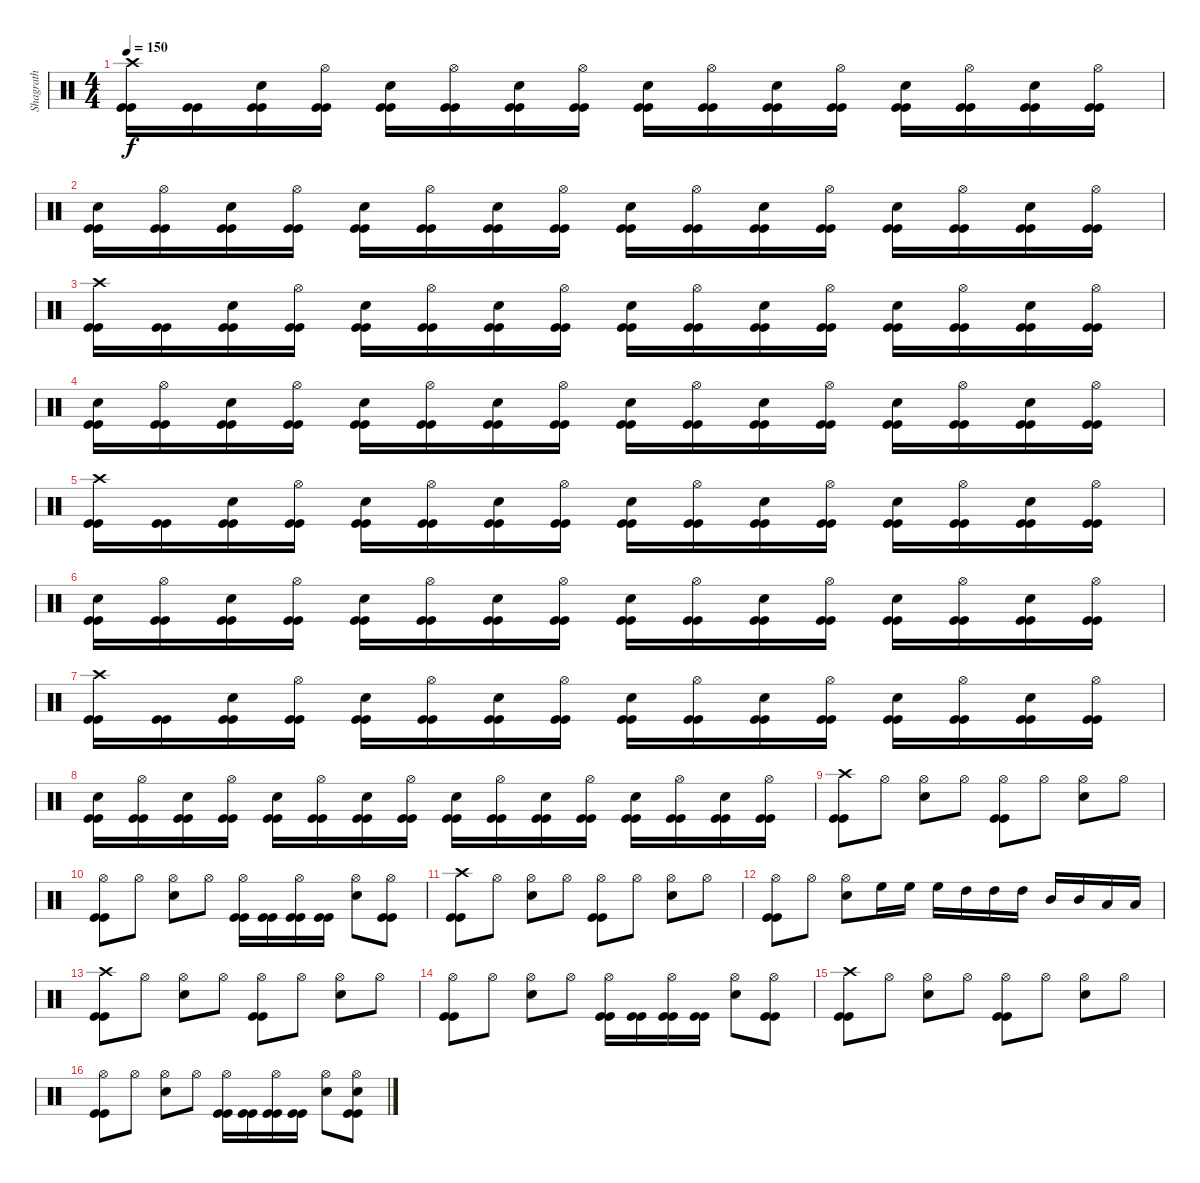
\track ("Shagrath" "Shagrath") {instrument percussion}
\staff {score}
\articulation defaults
\ts (4 4)
\tempo 150
\clef neutral
\ks c
("Kick (hit)" "Kick (hit)" "Crash high (hit)").16{dy f} ("Kick (hit)" "Kick (hit)").16 ("Kick (hit)" "Kick (hit)" "Electric Snare (hit)").16 ("Kick (hit)" "Kick (hit)" "Hi-Hat (open)").16 ("Kick (hit)" "Kick (hit)" "Electric Snare (hit)").16 ("Kick (hit)" "Kick (hit)" "Hi-Hat (open)").16 ("Kick (hit)" "Kick (hit)" "Electric Snare (hit)").16 ("Kick (hit)" "Kick (hit)" "Hi-Hat (open)").16 ("Kick (hit)" "Kick (hit)" "Electric Snare (hit)").16 ("Kick (hit)" "Kick (hit)" "Hi-Hat (open)").16 ("Kick (hit)" "Kick (hit)" "Electric Snare (hit)").16 ("Kick (hit)" "Kick (hit)" "Hi-Hat (open)").16 ("Kick (hit)" "Kick (hit)" "Electric Snare (hit)").16 ("Kick (hit)" "Kick (hit)" "Hi-Hat (open)").16 ("Kick (hit)" "Kick (hit)" "Electric Snare (hit)").16 ("Kick (hit)" "Kick (hit)" "Hi-Hat (open)").16 |
("Kick (hit)" "Kick (hit)" "Electric Snare (hit)").16 ("Kick (hit)" "Kick (hit)" "Hi-Hat (open)").16 ("Kick (hit)" "Kick (hit)" "Electric Snare (hit)").16 ("Kick (hit)" "Kick (hit)" "Hi-Hat (open)").16 ("Kick (hit)" "Kick (hit)" "Electric Snare (hit)").16 ("Kick (hit)" "Kick (hit)" "Hi-Hat (open)").16 ("Kick (hit)" "Kick (hit)" "Electric Snare (hit)").16 ("Kick (hit)" "Kick (hit)" "Hi-Hat (open)").16 ("Kick (hit)" "Kick (hit)" "Electric Snare (hit)").16 ("Kick (hit)" "Kick (hit)" "Hi-Hat (open)").16 ("Kick (hit)" "Kick (hit)" "Electric Snare (hit)").16 ("Kick (hit)" "Kick (hit)" "Hi-Hat (open)").16 ("Kick (hit)" "Kick (hit)" "Electric Snare (hit)").16 ("Kick (hit)" "Kick (hit)" "Hi-Hat (open)").16 ("Kick (hit)" "Kick (hit)" "Electric Snare (hit)").16 ("Kick (hit)" "Kick (hit)" "Hi-Hat (open)").16 |
("Kick (hit)" "Kick (hit)" "Crash high (hit)").16 ("Kick (hit)" "Kick (hit)").16 ("Kick (hit)" "Kick (hit)" "Electric Snare (hit)").16 ("Kick (hit)" "Kick (hit)" "Hi-Hat (open)").16 ("Kick (hit)" "Kick (hit)" "Electric Snare (hit)").16 ("Kick (hit)" "Kick (hit)" "Hi-Hat (open)").16 ("Kick (hit)" "Kick (hit)" "Electric Snare (hit)").16 ("Kick (hit)" "Kick (hit)" "Hi-Hat (open)").16 ("Kick (hit)" "Kick (hit)" "Electric Snare (hit)").16 ("Kick (hit)" "Kick (hit)" "Hi-Hat (open)").16 ("Kick (hit)" "Kick (hit)" "Electric Snare (hit)").16 ("Kick (hit)" "Kick (hit)" "Hi-Hat (open)").16 ("Kick (hit)" "Kick (hit)" "Electric Snare (hit)").16 ("Kick (hit)" "Kick (hit)" "Hi-Hat (open)").16 ("Kick (hit)" "Kick (hit)" "Electric Snare (hit)").16 ("Kick (hit)" "Kick (hit)" "Hi-Hat (open)").16 |
("Kick (hit)" "Kick (hit)" "Electric Snare (hit)").16 ("Kick (hit)" "Kick (hit)" "Hi-Hat (open)").16 ("Kick (hit)" "Kick (hit)" "Electric Snare (hit)").16 ("Kick (hit)" "Kick (hit)" "Hi-Hat (open)").16 ("Kick (hit)" "Kick (hit)" "Electric Snare (hit)").16 ("Kick (hit)" "Kick (hit)" "Hi-Hat (open)").16 ("Kick (hit)" "Kick (hit)" "Electric Snare (hit)").16 ("Kick (hit)" "Kick (hit)" "Hi-Hat (open)").16 ("Kick (hit)" "Kick (hit)" "Electric Snare (hit)").16 ("Kick (hit)" "Kick (hit)" "Hi-Hat (open)").16 ("Kick (hit)" "Kick (hit)" "Electric Snare (hit)").16 ("Kick (hit)" "Kick (hit)" "Hi-Hat (open)").16 ("Kick (hit)" "Kick (hit)" "Electric Snare (hit)").16 ("Kick (hit)" "Kick (hit)" "Hi-Hat (open)").16 ("Kick (hit)" "Kick (hit)" "Electric Snare (hit)").16 ("Kick (hit)" "Kick (hit)" "Hi-Hat (open)").16 |
("Kick (hit)" "Kick (hit)" "Crash high (hit)").16 ("Kick (hit)" "Kick (hit)").16 ("Kick (hit)" "Kick (hit)" "Electric Snare (hit)").16 ("Kick (hit)" "Kick (hit)" "Hi-Hat (open)").16 ("Kick (hit)" "Kick (hit)" "Electric Snare (hit)").16 ("Kick (hit)" "Kick (hit)" "Hi-Hat (open)").16 ("Kick (hit)" "Kick (hit)" "Electric Snare (hit)").16 ("Kick (hit)" "Kick (hit)" "Hi-Hat (open)").16 ("Kick (hit)" "Kick (hit)" "Electric Snare (hit)").16 ("Kick (hit)" "Kick (hit)" "Hi-Hat (open)").16 ("Kick (hit)" "Kick (hit)" "Electric Snare (hit)").16 ("Kick (hit)" "Kick (hit)" "Hi-Hat (open)").16 ("Kick (hit)" "Kick (hit)" "Electric Snare (hit)").16 ("Kick (hit)" "Kick (hit)" "Hi-Hat (open)").16 ("Kick (hit)" "Kick (hit)" "Electric Snare (hit)").16 ("Kick (hit)" "Kick (hit)" "Hi-Hat (open)").16 |
("Kick (hit)" "Kick (hit)" "Electric Snare (hit)").16 ("Kick (hit)" "Kick (hit)" "Hi-Hat (open)").16 ("Kick (hit)" "Kick (hit)" "Electric Snare (hit)").16 ("Kick (hit)" "Kick (hit)" "Hi-Hat (open)").16 ("Kick (hit)" "Kick (hit)" "Electric Snare (hit)").16 ("Kick (hit)" "Kick (hit)" "Hi-Hat (open)").16 ("Kick (hit)" "Kick (hit)" "Electric Snare (hit)").16 ("Kick (hit)" "Kick (hit)" "Hi-Hat (open)").16 ("Kick (hit)" "Kick (hit)" "Electric Snare (hit)").16 ("Kick (hit)" "Kick (hit)" "Hi-Hat (open)").16 ("Kick (hit)" "Kick (hit)" "Electric Snare (hit)").16 ("Kick (hit)" "Kick (hit)" "Hi-Hat (open)").16 ("Kick (hit)" "Kick (hit)" "Electric Snare (hit)").16 ("Kick (hit)" "Kick (hit)" "Hi-Hat (open)").16 ("Kick (hit)" "Kick (hit)" "Electric Snare (hit)").16 ("Kick (hit)" "Kick (hit)" "Hi-Hat (open)").16 |
("Kick (hit)" "Kick (hit)" "Crash high (hit)").16 ("Kick (hit)" "Kick (hit)").16 ("Kick (hit)" "Kick (hit)" "Electric Snare (hit)").16 ("Kick (hit)" "Kick (hit)" "Hi-Hat (open)").16 ("Kick (hit)" "Kick (hit)" "Electric Snare (hit)").16 ("Kick (hit)" "Kick (hit)" "Hi-Hat (open)").16 ("Kick (hit)" "Kick (hit)" "Electric Snare (hit)").16 ("Kick (hit)" "Kick (hit)" "Hi-Hat (open)").16 ("Kick (hit)" "Kick (hit)" "Electric Snare (hit)").16 ("Kick (hit)" "Kick (hit)" "Hi-Hat (open)").16 ("Kick (hit)" "Kick (hit)" "Electric Snare (hit)").16 ("Kick (hit)" "Kick (hit)" "Hi-Hat (open)").16 ("Kick (hit)" "Kick (hit)" "Electric Snare (hit)").16 ("Kick (hit)" "Kick (hit)" "Hi-Hat (open)").16 ("Kick (hit)" "Kick (hit)" "Electric Snare (hit)").16 ("Kick (hit)" "Kick (hit)" "Hi-Hat (open)").16 |
("Kick (hit)" "Kick (hit)" "Electric Snare (hit)").16 ("Kick (hit)" "Kick (hit)" "Hi-Hat (open)").16 ("Kick (hit)" "Kick (hit)" "Electric Snare (hit)").16 ("Kick (hit)" "Kick (hit)" "Hi-Hat (open)").16 ("Kick (hit)" "Kick (hit)" "Electric Snare (hit)").16 ("Kick (hit)" "Kick (hit)" "Hi-Hat (open)").16 ("Kick (hit)" "Kick (hit)" "Electric Snare (hit)").16 ("Kick (hit)" "Kick (hit)" "Hi-Hat (open)").16 ("Kick (hit)" "Kick (hit)" "Electric Snare (hit)").16 ("Kick (hit)" "Kick (hit)" "Hi-Hat (open)").16 ("Kick (hit)" "Kick (hit)" "Electric Snare (hit)").16 ("Kick (hit)" "Kick (hit)" "Hi-Hat (open)").16 ("Kick (hit)" "Kick (hit)" "Electric Snare (hit)").16 ("Kick (hit)" "Kick (hit)" "Hi-Hat (open)").16 ("Kick (hit)" "Kick (hit)" "Electric Snare (hit)").16 ("Kick (hit)" "Kick (hit)" "Hi-Hat (open)").16 |
("Kick (hit)" "Kick (hit)" "Crash high (hit)").8 "Hi-Hat (open)".8 ("Electric Snare (hit)" "Hi-Hat (open)").8 "Hi-Hat (open)".8 ("Kick (hit)" "Kick (hit)" "Hi-Hat (open)").8 "Hi-Hat (open)".8 ("Electric Snare (hit)" "Hi-Hat (open)").8 "Hi-Hat (open)".8 |
("Kick (hit)" "Kick (hit)" "Hi-Hat (open)").8 "Hi-Hat (open)".8 ("Electric Snare (hit)" "Hi-Hat (open)").8 "Hi-Hat (open)".8 ("Kick (hit)" "Kick (hit)" "Hi-Hat (open)").16 ("Kick (hit)" "Kick (hit)").16 ("Kick (hit)" "Kick (hit)" "Hi-Hat (open)").16 ("Kick (hit)" "Kick (hit)").16 ("Electric Snare (hit)" "Hi-Hat (open)").8 ("Kick (hit)" "Kick (hit)" "Hi-Hat (open)").8 |
("Kick (hit)" "Kick (hit)" "Crash high (hit)").8 "Hi-Hat (open)".8 ("Electric Snare (hit)" "Hi-Hat (open)").8 "Hi-Hat (open)".8 ("Kick (hit)" "Kick (hit)" "Hi-Hat (open)").8 "Hi-Hat (open)".8 ("Electric Snare (hit)" "Hi-Hat (open)").8 "Hi-Hat (open)".8 |
("Kick (hit)" "Kick (hit)" "Hi-Hat (open)").8 "Hi-Hat (open)".8 ("Electric Snare (hit)" "Hi-Hat (open)").8 "High Floor Tom (hit)".16 "High Floor Tom (hit)".16 "High Floor Tom (hit)".16 "High Tom (hit)".16 "High Tom (hit)".16 "High Tom (hit)".16 "Mid Tom (hit)".16 "Mid Tom (hit)".16 "Low Tom (hit)".16 "Low Tom (hit)".16 |
("Kick (hit)" "Kick (hit)" "Crash high (hit)").8 "Hi-Hat (open)".8 ("Electric Snare (hit)" "Hi-Hat (open)").8 "Hi-Hat (open)".8 ("Kick (hit)" "Kick (hit)" "Hi-Hat (open)").8 "Hi-Hat (open)".8 ("Electric Snare (hit)" "Hi-Hat (open)").8 "Hi-Hat (open)".8 |
("Kick (hit)" "Kick (hit)" "Hi-Hat (open)").8 "Hi-Hat (open)".8 ("Electric Snare (hit)" "Hi-Hat (open)").8 "Hi-Hat (open)".8 ("Kick (hit)" "Kick (hit)" "Hi-Hat (open)").16 ("Kick (hit)" "Kick (hit)").16 ("Kick (hit)" "Kick (hit)" "Hi-Hat (open)").16 ("Kick (hit)" "Kick (hit)").16 ("Electric Snare (hit)" "Hi-Hat (open)").8 ("Kick (hit)" "Kick (hit)" "Hi-Hat (open)").8 |
("Kick (hit)" "Kick (hit)" "Crash high (hit)").8 "Hi-Hat (open)".8 ("Electric Snare (hit)" "Hi-Hat (open)").8 "Hi-Hat (open)".8 ("Kick (hit)" "Kick (hit)" "Hi-Hat (open)").8 "Hi-Hat (open)".8 ("Electric Snare (hit)" "Hi-Hat (open)").8 "Hi-Hat (open)".8 |
("Kick (hit)" "Kick (hit)" "Hi-Hat (open)").8 "Hi-Hat (open)".8 ("Electric Snare (hit)" "Hi-Hat (open)").8 "Hi-Hat (open)".8 ("Kick (hit)" "Kick (hit)" "Hi-Hat (open)").16 ("Kick (hit)" "Kick (hit)").16 ("Kick (hit)" "Kick (hit)" "Hi-Hat (open)").16 ("Kick (hit)" "Kick (hit)").16 ("Electric Snare (hit)" "Hi-Hat (open)").8 ("Kick (hit)" "Kick (hit)" "Electric Snare (hit)" "Hi-Hat (open)").8
